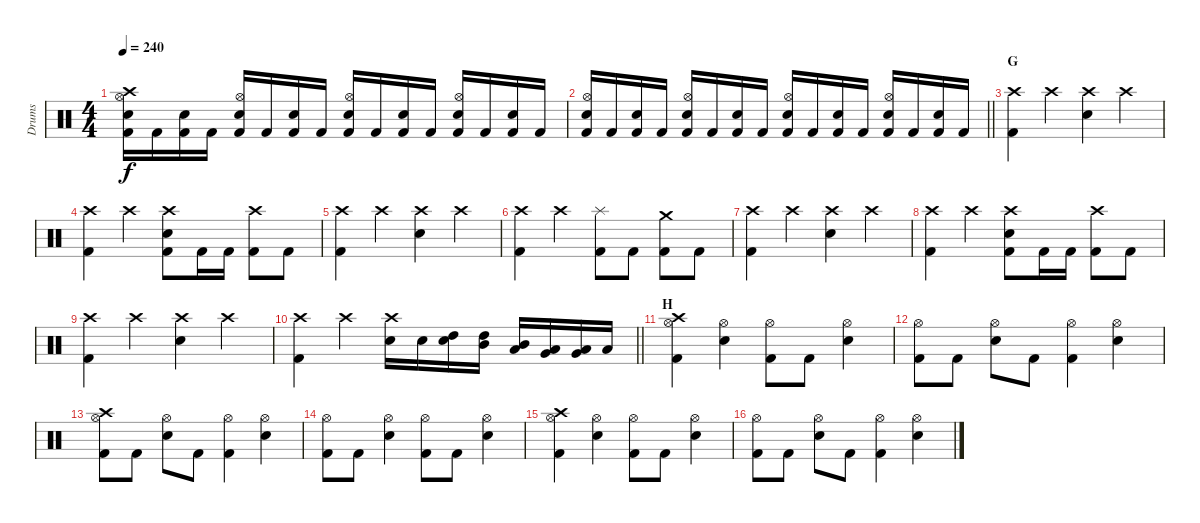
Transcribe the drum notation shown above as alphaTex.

\track ("Drums" "Drums") {instrument percussion}
\staff {score}
\articulation defaults
\ts (4 4)
\tempo 240
\clef neutral
\ks c
("Kick (hit) 2" "Hi-Hat (open)" "Snare (hit) 2" "Crash high (hit)").16{dy f} "Kick (hit) 2".16 ("Kick (hit) 2" "Snare (hit) 2").16 "Kick (hit) 2".16 ("Kick (hit) 2" "Hi-Hat (open)" "Snare (hit) 2").16 "Kick (hit) 2".16 ("Kick (hit) 2" "Snare (hit) 2").16 "Kick (hit) 2".16 ("Kick (hit) 2" "Hi-Hat (open)" "Snare (hit) 2").16 "Kick (hit) 2".16 ("Kick (hit) 2" "Snare (hit) 2").16 "Kick (hit) 2".16 ("Kick (hit) 2" "Hi-Hat (open)" "Snare (hit) 2").16 "Kick (hit) 2".16 ("Kick (hit) 2" "Snare (hit) 2").16 "Kick (hit) 2".16 |
\barLineRight lightlight
("Kick (hit) 2" "Hi-Hat (open)" "Snare (hit) 2").16 "Kick (hit) 2".16 ("Kick (hit) 2" "Snare (hit) 2").16 "Kick (hit) 2".16 ("Kick (hit) 2" "Hi-Hat (open)" "Snare (hit) 2").16 "Kick (hit) 2".16 ("Kick (hit) 2" "Snare (hit) 2").16 "Kick (hit) 2".16 ("Kick (hit) 2" "Hi-Hat (open)" "Snare (hit) 2").16 "Kick (hit) 2".16 ("Kick (hit) 2" "Snare (hit) 2").16 "Kick (hit) 2".16 ("Kick (hit) 2" "Hi-Hat (open)" "Snare (hit) 2").16 "Kick (hit) 2".16 ("Kick (hit) 2" "Snare (hit) 2").16 "Kick (hit) 2".16 |
\section ("" "G")
("Kick (hit) 2" "Crash high (hit)").4 "Crash high (hit)".4 ("Snare (hit) 2" "Crash high (hit)").4 "Crash high (hit)".4 |
("Kick (hit) 2" "Crash high (hit)").4 "Crash high (hit)".4 ("Kick (hit) 2" "Snare (hit) 2" "Crash high (hit)").8 "Kick (hit) 2".16 "Kick (hit) 2".16 ("Kick (hit) 2" "Crash high (hit)").8 "Kick (hit) 2".8 |
("Kick (hit) 2" "Crash high (hit)").4 "Crash high (hit)".4 ("Snare (hit) 2" "Crash high (hit)").4 "Crash high (hit)".4 |
("Kick (hit) 2" "Crash high (hit)").4 "Crash high (hit)".4 ("Kick (hit) 2" "Splash (hit)").8 "Kick (hit) 2".8 ("Kick (hit) 2" "Crash medium (hit)").8 "Kick (hit) 2".8 |
("Kick (hit) 2" "Crash high (hit)").4 "Crash high (hit)".4 ("Snare (hit) 2" "Crash high (hit)").4 "Crash high (hit)".4 |
("Kick (hit) 2" "Crash high (hit)").4 "Crash high (hit)".4 ("Kick (hit) 2" "Snare (hit) 2" "Crash high (hit)").8 "Kick (hit) 2".16 "Kick (hit) 2".16 ("Kick (hit) 2" "Crash high (hit)").8 "Kick (hit) 2".8 |
("Kick (hit) 2" "Crash high (hit)").4 "Crash high (hit)".4 ("Snare (hit) 2" "Crash high (hit)").4 "Crash high (hit)".4 |
\barLineRight lightlight
("Kick (hit) 2" "Crash high (hit)").4 "Crash high (hit)".4 ("Snare (hit) 2" "Crash high (hit)").16 "Snare (hit) 2".16 ("Snare (hit) 2" "High Tom (hit)").16 ("High Tom (hit)" "Mid Tom (hit)").16 ("Mid Tom (hit)" "Low Tom (hit)").16 ("Low Tom (hit)" "Very Low Tom (hit)").16 ("Very Low Tom (hit)" "Low Floor Tom (hit)").16 "Low Floor Tom (hit)".16 |
\section ("" "H")
("Kick (hit) 2" "Hi-Hat (open)" "Crash high (hit)").4 ("Hi-Hat (open)" "Snare (hit) 2").4 ("Kick (hit) 2" "Hi-Hat (open)").8 "Kick (hit) 2".8 ("Hi-Hat (open)" "Snare (hit) 2").4 |
("Kick (hit) 2" "Hi-Hat (open)").8 "Kick (hit) 2".8 ("Hi-Hat (open)" "Snare (hit) 2").8 "Kick (hit) 2".8 ("Kick (hit) 2" "Hi-Hat (open)").4 ("Hi-Hat (open)" "Snare (hit) 2").4 |
("Kick (hit) 2" "Hi-Hat (open)" "Crash high (hit)").8 "Kick (hit) 2".8 ("Hi-Hat (open)" "Snare (hit) 2").8 "Kick (hit) 2".8 ("Kick (hit) 2" "Hi-Hat (open)").4 ("Hi-Hat (open)" "Snare (hit) 2").4 |
("Kick (hit) 2" "Hi-Hat (open)").8 "Kick (hit) 2".8 ("Hi-Hat (open)" "Snare (hit) 2").4 ("Kick (hit) 2" "Hi-Hat (open)").8 "Kick (hit) 2".8 ("Hi-Hat (open)" "Snare (hit) 2").4 |
("Kick (hit) 2" "Hi-Hat (open)" "Crash high (hit)").4 ("Hi-Hat (open)" "Snare (hit) 2").4 ("Kick (hit) 2" "Hi-Hat (open)").8 "Kick (hit) 2".8 ("Hi-Hat (open)" "Snare (hit) 2").4 |
("Kick (hit) 2" "Hi-Hat (open)").8 "Kick (hit) 2".8 ("Hi-Hat (open)" "Snare (hit) 2").8 "Kick (hit) 2".8 ("Kick (hit) 2" "Hi-Hat (open)").4 ("Hi-Hat (open)" "Snare (hit) 2").4
